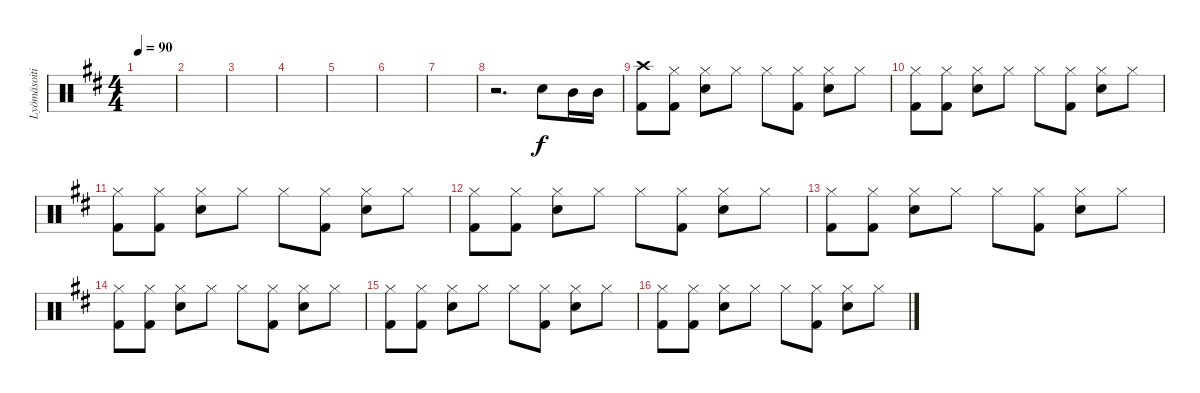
\track ("Lyömäsoitin" "Lyömäsoiti") {instrument percussion}
\staff {score}
\articulation defaults
\ts (4 4)
\tempo 90
\clef neutral
\ks d
|
|
|
|
|
|
|
r.2{d} "Snare (hit) 2".8 "Mid Tom (hit)".16 "Mid Tom (hit)".16 |
("Crash high (hit)" "Kick (hit) 2").8 ("Hi-Hat (closed)" "Kick (hit) 2").8 ("Hi-Hat (closed)" "Snare (hit) 2").8 "Hi-Hat (closed)".8 "Hi-Hat (closed)".8 ("Hi-Hat (closed)" "Kick (hit) 2").8 ("Hi-Hat (closed)" "Snare (hit) 2").8 "Hi-Hat (closed)".8 |
("Hi-Hat (closed)" "Kick (hit) 2").8 ("Hi-Hat (closed)" "Kick (hit) 2").8 ("Hi-Hat (closed)" "Snare (hit) 2").8 "Hi-Hat (closed)".8 "Hi-Hat (closed)".8 ("Hi-Hat (closed)" "Kick (hit) 2").8 ("Hi-Hat (closed)" "Snare (hit) 2").8 "Hi-Hat (closed)".8 |
("Hi-Hat (closed)" "Kick (hit) 2").8 ("Hi-Hat (closed)" "Kick (hit) 2").8 ("Hi-Hat (closed)" "Snare (hit) 2").8 "Hi-Hat (closed)".8 "Hi-Hat (closed)".8 ("Hi-Hat (closed)" "Kick (hit) 2").8 ("Hi-Hat (closed)" "Snare (hit) 2").8 "Hi-Hat (closed)".8 |
("Hi-Hat (closed)" "Kick (hit) 2").8 ("Hi-Hat (closed)" "Kick (hit) 2").8 ("Hi-Hat (closed)" "Snare (hit) 2").8 "Hi-Hat (closed)".8 "Hi-Hat (closed)".8 ("Hi-Hat (closed)" "Kick (hit) 2").8 ("Hi-Hat (closed)" "Snare (hit) 2").8 "Hi-Hat (closed)".8 |
("Hi-Hat (closed)" "Kick (hit) 2").8 ("Hi-Hat (closed)" "Kick (hit) 2").8 ("Hi-Hat (closed)" "Snare (hit) 2").8 "Hi-Hat (closed)".8 "Hi-Hat (closed)".8 ("Hi-Hat (closed)" "Kick (hit) 2").8 ("Hi-Hat (closed)" "Snare (hit) 2").8 "Hi-Hat (closed)".8 |
("Hi-Hat (closed)" "Kick (hit) 2").8 ("Hi-Hat (closed)" "Kick (hit) 2").8 ("Hi-Hat (closed)" "Snare (hit) 2").8 "Hi-Hat (closed)".8 "Hi-Hat (closed)".8 ("Hi-Hat (closed)" "Kick (hit) 2").8 ("Hi-Hat (closed)" "Snare (hit) 2").8 "Hi-Hat (closed)".8 |
("Hi-Hat (closed)" "Kick (hit) 2").8 ("Hi-Hat (closed)" "Kick (hit) 2").8 ("Hi-Hat (closed)" "Snare (hit) 2").8 "Hi-Hat (closed)".8 "Hi-Hat (closed)".8 ("Hi-Hat (closed)" "Kick (hit) 2").8 ("Hi-Hat (closed)" "Snare (hit) 2").8 "Hi-Hat (closed)".8 |
("Hi-Hat (closed)" "Kick (hit) 2").8 ("Hi-Hat (closed)" "Kick (hit) 2").8 ("Hi-Hat (closed)" "Snare (hit) 2").8 "Hi-Hat (closed)".8 "Hi-Hat (closed)".8 ("Hi-Hat (closed)" "Kick (hit) 2").8 ("Hi-Hat (closed)" "Snare (hit) 2").8 "Hi-Hat (closed)".8
